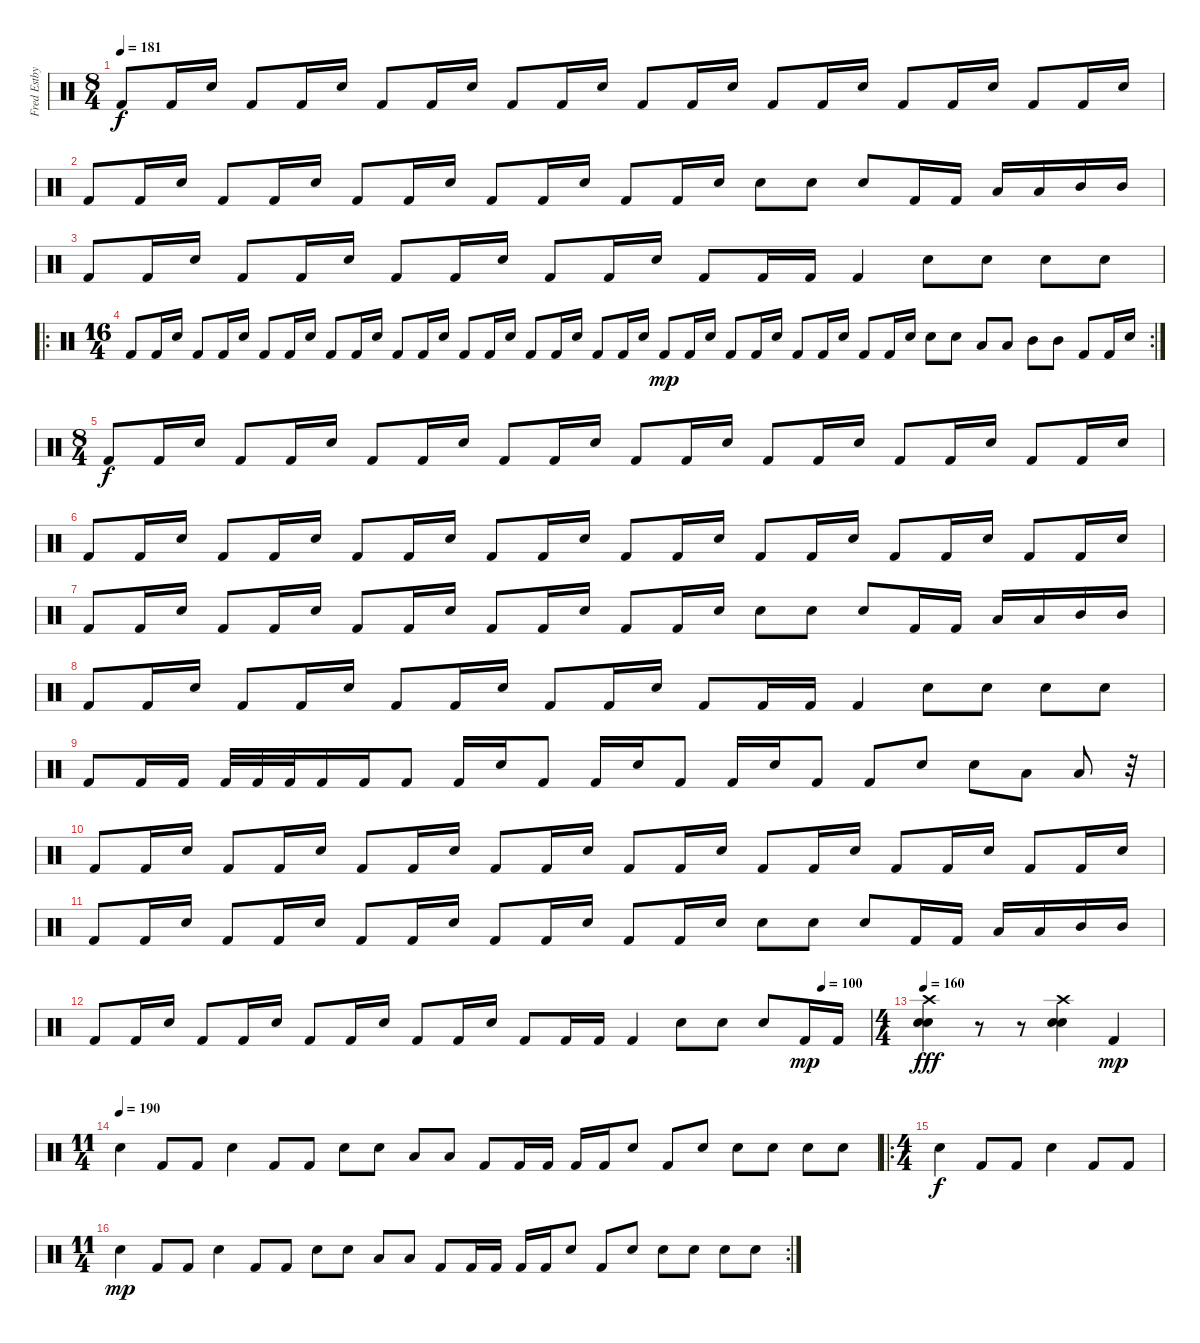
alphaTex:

\track ("Fred Estby" "Fred Estby") {instrument percussion}
\staff {score}
\articulation defaults
\ts (8 4)
\tempo 181
\clef neutral
\ks c "Kick (hit) 2".8{dy f} "Kick (hit) 2".16 "Electric Snare (hit)".16 "Kick (hit) 2".8 "Kick (hit) 2".16 "Electric Snare (hit)".16 "Kick (hit) 2".8 "Kick (hit) 2".16 "Electric Snare (hit)".16 "Kick (hit) 2".8 "Kick (hit) 2".16 "Electric Snare (hit)".16 "Kick (hit) 2".8 "Kick (hit) 2".16 "Electric Snare (hit)".16 "Kick (hit) 2".8 "Kick (hit) 2".16 "Electric Snare (hit)".16 "Kick (hit) 2".8 "Kick (hit) 2".16 "Electric Snare (hit)".16 "Kick (hit) 2".8 "Kick (hit) 2".16 "Electric Snare (hit)".16
|
"Kick (hit) 2".8 "Kick (hit) 2".16 "Electric Snare (hit)".16 "Kick (hit) 2".8 "Kick (hit) 2".16 "Electric Snare (hit)".16 "Kick (hit) 2".8 "Kick (hit) 2".16 "Electric Snare (hit)".16 "Kick (hit) 2".8 "Kick (hit) 2".16 "Electric Snare (hit)".16 "Kick (hit) 2".8 "Kick (hit) 2".16 "Electric Snare (hit)".16 "Electric Snare (hit)".8 "Electric Snare (hit)".8 "Electric Snare (hit)".8 "Kick (hit) 2".16 "Kick (hit) 2".16 "Low Tom (hit)".16 "Low Tom (hit)".16 "Mid Tom (hit)".16 "Mid Tom (hit)".16 |
"Kick (hit) 2".8 "Kick (hit) 2".16 "Electric Snare (hit)".16 "Kick (hit) 2".8 "Kick (hit) 2".16 "Electric Snare (hit)".16 "Kick (hit) 2".8 "Kick (hit) 2".16 "Electric Snare (hit)".16 "Kick (hit) 2".8 "Kick (hit) 2".16 "Electric Snare (hit)".16 "Kick (hit) 2".8 "Kick (hit) 2".16 "Kick (hit) 2".16 "Kick (hit) 2".4 "Electric Snare (hit)".8 "Electric Snare (hit)".8 "Electric Snare (hit)".8 "Electric Snare (hit)".8 |
\ro
\rc 2
\ts (16 4)
"Kick (hit) 2".8 "Kick (hit) 2".16 "Electric Snare (hit)".16 "Kick (hit) 2".8 "Kick (hit) 2".16 "Electric Snare (hit)".16 "Kick (hit) 2".8 "Kick (hit) 2".16 "Electric Snare (hit)".16 "Kick (hit) 2".8 "Kick (hit) 2".16 "Electric Snare (hit)".16 "Kick (hit) 2".8 "Kick (hit) 2".16 "Electric Snare (hit)".16 "Kick (hit) 2".8 "Kick (hit) 2".16 "Electric Snare (hit)".16 "Kick (hit) 2".8 "Kick (hit) 2".16 "Electric Snare (hit)".16 "Kick (hit) 2".8 "Kick (hit) 2".16 "Electric Snare (hit)".16 "Kick (hit) 2".8{dy mp} "Kick (hit) 2".16 "Electric Snare (hit)".16 "Kick (hit) 2".8 "Kick (hit) 2".16 "Electric Snare (hit)".16 "Kick (hit) 2".8 "Kick (hit) 2".16 "Electric Snare (hit)".16 "Kick (hit) 2".8 "Kick (hit) 2".16 "Electric Snare (hit)".16 "Electric Snare (hit)".8 "Electric Snare (hit)".8 "Low Tom (hit)".8 "Low Tom (hit)".8 "Mid Tom (hit)".8 "Mid Tom (hit)".8 "Kick (hit) 2".8 "Kick (hit) 2".16 "Electric Snare (hit)".16 |
\ts (8 4)
"Kick (hit) 2".8{dy f} "Kick (hit) 2".16 "Electric Snare (hit)".16 "Kick (hit) 2".8 "Kick (hit) 2".16 "Electric Snare (hit)".16 "Kick (hit) 2".8 "Kick (hit) 2".16 "Electric Snare (hit)".16 "Kick (hit) 2".8 "Kick (hit) 2".16 "Electric Snare (hit)".16 "Kick (hit) 2".8 "Kick (hit) 2".16 "Electric Snare (hit)".16 "Kick (hit) 2".8 "Kick (hit) 2".16 "Electric Snare (hit)".16 "Kick (hit) 2".8 "Kick (hit) 2".16 "Electric Snare (hit)".16 "Kick (hit) 2".8 "Kick (hit) 2".16 "Electric Snare (hit)".16 |
"Kick (hit) 2".8 "Kick (hit) 2".16 "Electric Snare (hit)".16 "Kick (hit) 2".8 "Kick (hit) 2".16 "Electric Snare (hit)".16 "Kick (hit) 2".8 "Kick (hit) 2".16 "Electric Snare (hit)".16 "Kick (hit) 2".8 "Kick (hit) 2".16 "Electric Snare (hit)".16 "Kick (hit) 2".8 "Kick (hit) 2".16 "Electric Snare (hit)".16 "Kick (hit) 2".8 "Kick (hit) 2".16 "Electric Snare (hit)".16 "Kick (hit) 2".8 "Kick (hit) 2".16 "Electric Snare (hit)".16 "Kick (hit) 2".8 "Kick (hit) 2".16 "Electric Snare (hit)".16 |
"Kick (hit) 2".8 "Kick (hit) 2".16 "Electric Snare (hit)".16 "Kick (hit) 2".8 "Kick (hit) 2".16 "Electric Snare (hit)".16 "Kick (hit) 2".8 "Kick (hit) 2".16 "Electric Snare (hit)".16 "Kick (hit) 2".8 "Kick (hit) 2".16 "Electric Snare (hit)".16 "Kick (hit) 2".8 "Kick (hit) 2".16 "Electric Snare (hit)".16 "Electric Snare (hit)".8 "Electric Snare (hit)".8 "Electric Snare (hit)".8 "Kick (hit) 2".16 "Kick (hit) 2".16 "Low Tom (hit)".16 "Low Tom (hit)".16 "Mid Tom (hit)".16 "Mid Tom (hit)".16 |
"Kick (hit) 2".8 "Kick (hit) 2".16 "Electric Snare (hit)".16 "Kick (hit) 2".8 "Kick (hit) 2".16 "Electric Snare (hit)".16 "Kick (hit) 2".8 "Kick (hit) 2".16 "Electric Snare (hit)".16 "Kick (hit) 2".8 "Kick (hit) 2".16 "Electric Snare (hit)".16 "Kick (hit) 2".8 "Kick (hit) 2".16 "Kick (hit) 2".16 "Kick (hit) 2".4 "Electric Snare (hit)".8 "Electric Snare (hit)".8 "Electric Snare (hit)".8 "Electric Snare (hit)".8 |
"Kick (hit) 2".8 "Kick (hit) 2".16 "Kick (hit) 2".16 "Kick (hit) 2".32 "Kick (hit) 2".32 "Kick (hit) 2".32 "Kick (hit) 2".16 "Kick (hit) 2".16 "Kick (hit) 2".8 "Kick (hit) 2".16 "Electric Snare (hit)".16 "Kick (hit) 2".8 "Kick (hit) 2".16 "Electric Snare (hit)".16 "Kick (hit) 2".8 "Kick (hit) 2".16 "Electric Snare (hit)".16 "Kick (hit) 2".8 "Kick (hit) 2".8 "Electric Snare (hit)".8 "Electric Snare (hit)".8 "Low Tom (hit)".8 "Low Tom (hit)".8 r.32 |
"Kick (hit) 2".8 "Kick (hit) 2".16 "Electric Snare (hit)".16 "Kick (hit) 2".8 "Kick (hit) 2".16 "Electric Snare (hit)".16 "Kick (hit) 2".8 "Kick (hit) 2".16 "Electric Snare (hit)".16 "Kick (hit) 2".8 "Kick (hit) 2".16 "Electric Snare (hit)".16 "Kick (hit) 2".8 "Kick (hit) 2".16 "Electric Snare (hit)".16 "Kick (hit) 2".8 "Kick (hit) 2".16 "Electric Snare (hit)".16 "Kick (hit) 2".8 "Kick (hit) 2".16 "Electric Snare (hit)".16 "Kick (hit) 2".8 "Kick (hit) 2".16 "Electric Snare (hit)".16 |
"Kick (hit) 2".8 "Kick (hit) 2".16 "Electric Snare (hit)".16 "Kick (hit) 2".8 "Kick (hit) 2".16 "Electric Snare (hit)".16 "Kick (hit) 2".8 "Kick (hit) 2".16 "Electric Snare (hit)".16 "Kick (hit) 2".8 "Kick (hit) 2".16 "Electric Snare (hit)".16 "Kick (hit) 2".8 "Kick (hit) 2".16 "Electric Snare (hit)".16 "Electric Snare (hit)".8 "Electric Snare (hit)".8 "Electric Snare (hit)".8 "Kick (hit) 2".16 "Kick (hit) 2".16 "Low Tom (hit)".16 "Low Tom (hit)".16 "Mid Tom (hit)".16 "Mid Tom (hit)".16 |
\tempo (100 0.9375)
"Kick (hit) 2".8 "Kick (hit) 2".16 "Electric Snare (hit)".16 "Kick (hit) 2".8 "Kick (hit) 2".16 "Electric Snare (hit)".16 "Kick (hit) 2".8 "Kick (hit) 2".16 "Electric Snare (hit)".16 "Kick (hit) 2".8 "Kick (hit) 2".16 "Electric Snare (hit)".16 "Kick (hit) 2".8 "Kick (hit) 2".16 "Kick (hit) 2".16 "Kick (hit) 2".4 "Electric Snare (hit)".8 "Electric Snare (hit)".8 "Electric Snare (hit)".8 "Kick (hit) 2".16{dy mp} "Kick (hit) 2".16 |
\ts (4 4)
\tempo 160
("Electric Snare (hit)" "Electric Snare (hit)" "Crash high (hit)").4{dy fff} r.8 r.8 ("Electric Snare (hit)" "Electric Snare (hit)" "Crash high (hit)").4 "Kick (hit) 2".4{dy mp} |
\ts (11 4)
\tempo 181
\tempo (190)
"Electric Snare (hit)".4 "Kick (hit) 2".8 "Kick (hit) 2".8 "Electric Snare (hit)".4 "Kick (hit) 2".8 "Kick (hit) 2".8 "Electric Snare (hit)".8 "Electric Snare (hit)".8 "Low Tom (hit)".8 "Low Tom (hit)".8 "Kick (hit) 2".8 "Kick (hit) 2".16 "Kick (hit) 2".16 "Kick (hit) 2".16 "Kick (hit) 2".16 "Electric Snare (hit)".8 "Kick (hit) 2".8 "Electric Snare (hit)".8 "Electric Snare (hit)".8 "Electric Snare (hit)".8 "Electric Snare (hit)".8 "Electric Snare (hit)".8 |
\ro
\ts (4 4)
"Electric Snare (hit)".4{dy f} "Kick (hit) 2".8 "Kick (hit) 2".8 "Electric Snare (hit)".4 "Kick (hit) 2".8 "Kick (hit) 2".8 |
\rc 2
\ts (11 4)
"Electric Snare (hit)".4{dy mp} "Kick (hit) 2".8 "Kick (hit) 2".8 "Electric Snare (hit)".4 "Kick (hit) 2".8 "Kick (hit) 2".8 "Electric Snare (hit)".8 "Electric Snare (hit)".8 "Low Tom (hit)".8 "Low Tom (hit)".8 "Kick (hit) 2".8 "Kick (hit) 2".16 "Kick (hit) 2".16 "Kick (hit) 2".16 "Kick (hit) 2".16 "Electric Snare (hit)".8 "Kick (hit) 2".8 "Electric Snare (hit)".8 "Electric Snare (hit)".8 "Electric Snare (hit)".8 "Electric Snare (hit)".8 "Electric Snare (hit)".8
